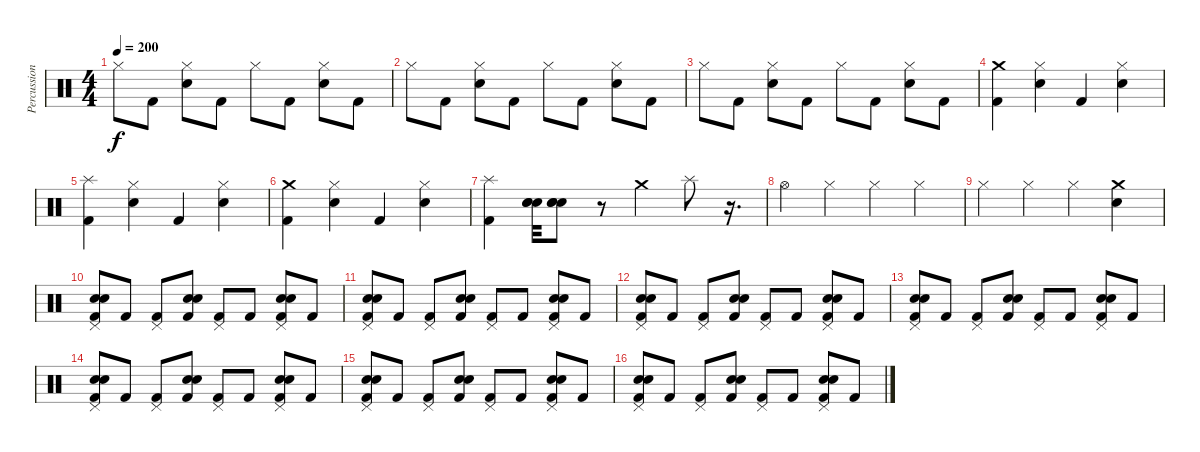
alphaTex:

\track ("Percussion" "Percussion") {instrument percussion}
\staff {score}
\articulation defaults
\ts (4 4)
\tempo 200
\clef neutral
\ks c "Hi-Hat (closed)".8{dy f} "Kick (hit) 2".8
("Hi-Hat (closed)" "Snare (hit) 2").8 "Kick (hit) 2".8 "Hi-Hat (closed)".8 "Kick (hit) 2".8 ("Hi-Hat (closed)" "Snare (hit) 2").8 "Kick (hit) 2".8 |
"Hi-Hat (closed)".8 "Kick (hit) 2".8 ("Hi-Hat (closed)" "Snare (hit) 2").8 "Kick (hit) 2".8 "Hi-Hat (closed)".8 "Kick (hit) 2".8 ("Hi-Hat (closed)" "Snare (hit) 2").8 "Kick (hit) 2".8 |
"Hi-Hat (closed)".8 "Kick (hit) 2".8 ("Hi-Hat (closed)" "Snare (hit) 2").8 "Kick (hit) 2".8 "Hi-Hat (closed)".8 "Kick (hit) 2".8 ("Hi-Hat (closed)" "Snare (hit) 2").8 "Kick (hit) 2".8 |
("Crash medium (hit)" "Kick (hit) 2").4 ("Hi-Hat (closed)" "Snare (hit) 2").4 "Kick (hit) 2".4 ("Hi-Hat (closed)" "Snare (hit) 2").4 |
("Splash (hit)" "Kick (hit) 2").4 ("Hi-Hat (closed)" "Snare (hit) 2").4 "Kick (hit) 2".4 ("Hi-Hat (closed)" "Snare (hit) 2").4 |
("Crash medium (hit)" "Kick (hit) 2").4 ("Hi-Hat (closed)" "Snare (hit) 2").4 "Kick (hit) 2".4 ("Hi-Hat (closed)" "Snare (hit) 2").4 |
("Splash (hit)" "Kick (hit) 2").4 ("Snare (hit) 2" "Snare (hit) 2" "Electric Snare (hit)").32 ("Snare (hit) 2" "Snare (hit) 2" "Electric Snare (hit)").8 r.8 "Crash medium (hit)".4 "Splash (hit)".8 r.16{d} |
"Hi-Hat (open)".4 "Hi-Hat (closed)".4 "Hi-Hat (closed)".4 "Hi-Hat (closed)".4 |
"Hi-Hat (closed)".4 "Hi-Hat (closed)".4 "Hi-Hat (closed)".4 ("Crash medium (hit)" "Snare (hit) 2").4 |
("Pedal Hi-Hat (hit)" "Snare (hit) 2" "Electric Snare (hit)" "Kick (hit) 2").8 "Kick (hit) 2".8 ("Pedal Hi-Hat (hit)" "Kick (hit) 2").8 ("Snare (hit) 2" "Electric Snare (hit)" "Kick (hit) 2").8 ("Pedal Hi-Hat (hit)" "Kick (hit) 2").8 "Kick (hit) 2".8 ("Pedal Hi-Hat (hit)" "Snare (hit) 2" "Electric Snare (hit)" "Kick (hit) 2").8 "Kick (hit) 2".8 |
("Pedal Hi-Hat (hit)" "Snare (hit) 2" "Electric Snare (hit)" "Kick (hit) 2").8 "Kick (hit) 2".8 ("Pedal Hi-Hat (hit)" "Kick (hit) 2").8 ("Snare (hit) 2" "Electric Snare (hit)" "Kick (hit) 2").8 ("Pedal Hi-Hat (hit)" "Kick (hit) 2").8 "Kick (hit) 2".8 ("Pedal Hi-Hat (hit)" "Snare (hit) 2" "Electric Snare (hit)" "Kick (hit) 2").8 "Kick (hit) 2".8 |
("Pedal Hi-Hat (hit)" "Snare (hit) 2" "Electric Snare (hit)" "Kick (hit) 2").8 "Kick (hit) 2".8 ("Pedal Hi-Hat (hit)" "Kick (hit) 2").8 ("Snare (hit) 2" "Electric Snare (hit)" "Kick (hit) 2").8 ("Pedal Hi-Hat (hit)" "Kick (hit) 2").8 "Kick (hit) 2".8 ("Pedal Hi-Hat (hit)" "Snare (hit) 2" "Electric Snare (hit)" "Kick (hit) 2").8 "Kick (hit) 2".8 |
("Pedal Hi-Hat (hit)" "Snare (hit) 2" "Electric Snare (hit)" "Kick (hit) 2").8 "Kick (hit) 2".8 ("Pedal Hi-Hat (hit)" "Kick (hit) 2").8 ("Snare (hit) 2" "Electric Snare (hit)" "Kick (hit) 2").8 ("Pedal Hi-Hat (hit)" "Kick (hit) 2").8 "Kick (hit) 2".8 ("Pedal Hi-Hat (hit)" "Snare (hit) 2" "Electric Snare (hit)" "Kick (hit) 2").8 "Kick (hit) 2".8 |
("Pedal Hi-Hat (hit)" "Snare (hit) 2" "Electric Snare (hit)" "Kick (hit) 2").8 "Kick (hit) 2".8 ("Pedal Hi-Hat (hit)" "Kick (hit) 2").8 ("Snare (hit) 2" "Electric Snare (hit)" "Kick (hit) 2").8 ("Pedal Hi-Hat (hit)" "Kick (hit) 2").8 "Kick (hit) 2".8 ("Pedal Hi-Hat (hit)" "Snare (hit) 2" "Electric Snare (hit)" "Kick (hit) 2").8 "Kick (hit) 2".8 |
("Pedal Hi-Hat (hit)" "Snare (hit) 2" "Electric Snare (hit)" "Kick (hit) 2").8 "Kick (hit) 2".8 ("Pedal Hi-Hat (hit)" "Kick (hit) 2").8 ("Snare (hit) 2" "Electric Snare (hit)" "Kick (hit) 2").8 ("Pedal Hi-Hat (hit)" "Kick (hit) 2").8 "Kick (hit) 2".8 ("Pedal Hi-Hat (hit)" "Snare (hit) 2" "Electric Snare (hit)" "Kick (hit) 2").8 "Kick (hit) 2".8 |
("Pedal Hi-Hat (hit)" "Snare (hit) 2" "Electric Snare (hit)" "Kick (hit) 2").8 "Kick (hit) 2".8 ("Pedal Hi-Hat (hit)" "Kick (hit) 2").8 ("Snare (hit) 2" "Electric Snare (hit)" "Kick (hit) 2").8 ("Pedal Hi-Hat (hit)" "Kick (hit) 2").8 "Kick (hit) 2".8 ("Pedal Hi-Hat (hit)" "Snare (hit) 2" "Electric Snare (hit)" "Kick (hit) 2").8 "Kick (hit) 2".8
